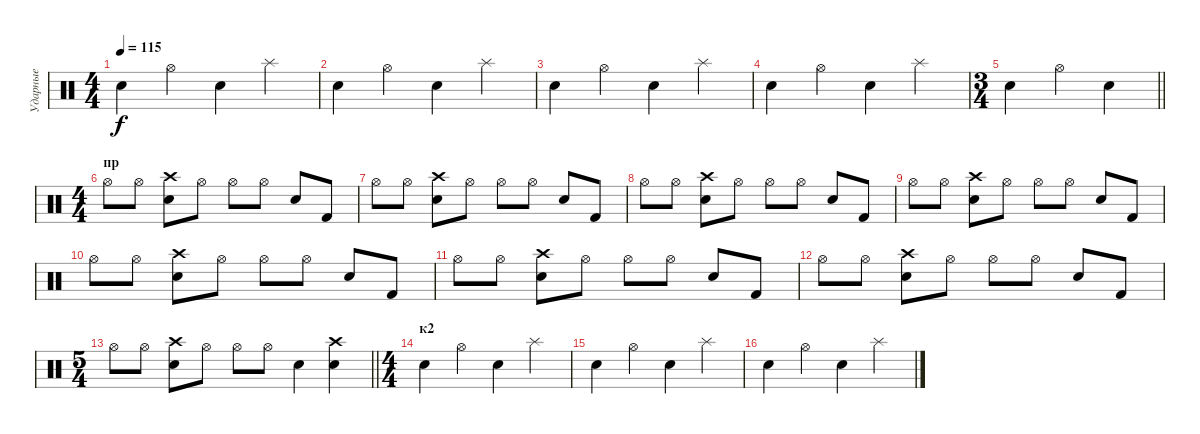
\track ("Ударные" "Ударные") {instrument percussion}
\staff {score}
\articulation defaults
\ts (4 4)
\tempo 115
\clef neutral
\ks c "Snare (hit) 2".4{dy f} "Hi-Hat (open)".4 "Snare (hit) 2".4 "Splash (hit)".4
|
"Snare (hit) 2".4 "Hi-Hat (open)".4 "Snare (hit) 2".4 "Splash (hit)".4 |
"Snare (hit) 2".4 "Hi-Hat (open)".4 "Snare (hit) 2".4 "Splash (hit)".4 |
"Snare (hit) 2".4 "Hi-Hat (open)".4 "Snare (hit) 2".4 "Splash (hit)".4 |
\ts (3 4)
\barLineRight lightlight "Snare (hit) 2".4 "Hi-Hat (open)".4 "Snare (hit) 2".4
|
\ts (4 4)
\section ("" "пр")
"Hi-Hat (open)".8 "Hi-Hat (open)".8 ("Crash high (hit)" "Snare (hit) 2").8 "Hi-Hat (open)".8 "Hi-Hat (open)".8 "Hi-Hat (open)".8 "Snare (hit) 2".8 "Kick (hit) 2".8 |
"Hi-Hat (open)".8 "Hi-Hat (open)".8 ("Crash high (hit)" "Snare (hit) 2").8 "Hi-Hat (open)".8 "Hi-Hat (open)".8 "Hi-Hat (open)".8 "Snare (hit) 2".8 "Kick (hit) 2".8 |
"Hi-Hat (open)".8 "Hi-Hat (open)".8 ("Crash high (hit)" "Snare (hit) 2").8 "Hi-Hat (open)".8 "Hi-Hat (open)".8 "Hi-Hat (open)".8 "Snare (hit) 2".8 "Kick (hit) 2".8 |
"Hi-Hat (open)".8 "Hi-Hat (open)".8 ("Crash high (hit)" "Snare (hit) 2").8 "Hi-Hat (open)".8 "Hi-Hat (open)".8 "Hi-Hat (open)".8 "Snare (hit) 2".8 "Kick (hit) 2".8 |
"Hi-Hat (open)".8 "Hi-Hat (open)".8 ("Crash high (hit)" "Snare (hit) 2").8 "Hi-Hat (open)".8 "Hi-Hat (open)".8 "Hi-Hat (open)".8 "Snare (hit) 2".8 "Kick (hit) 2".8 |
"Hi-Hat (open)".8 "Hi-Hat (open)".8 ("Crash high (hit)" "Snare (hit) 2").8 "Hi-Hat (open)".8 "Hi-Hat (open)".8 "Hi-Hat (open)".8 "Snare (hit) 2".8 "Kick (hit) 2".8 |
"Hi-Hat (open)".8 "Hi-Hat (open)".8 ("Crash high (hit)" "Snare (hit) 2").8 "Hi-Hat (open)".8 "Hi-Hat (open)".8 "Hi-Hat (open)".8 "Snare (hit) 2".8 "Kick (hit) 2".8 |
\ts (5 4)
\barLineRight lightlight "Hi-Hat (open)".8 "Hi-Hat (open)".8
("Crash high (hit)" "Snare (hit) 2").8 "Hi-Hat (open)".8 "Hi-Hat (open)".8 "Hi-Hat (open)".8 "Snare (hit) 2".4 ("Snare (hit) 2" "Crash high (hit)").4 |
\ts (4 4)
\section ("" "к2")
"Snare (hit) 2".4 "Hi-Hat (open)".4 "Snare (hit) 2".4 "Splash (hit)".4 |
"Snare (hit) 2".4 "Hi-Hat (open)".4 "Snare (hit) 2".4 "Splash (hit)".4 |
"Snare (hit) 2".4 "Hi-Hat (open)".4 "Snare (hit) 2".4 "Splash (hit)".4
